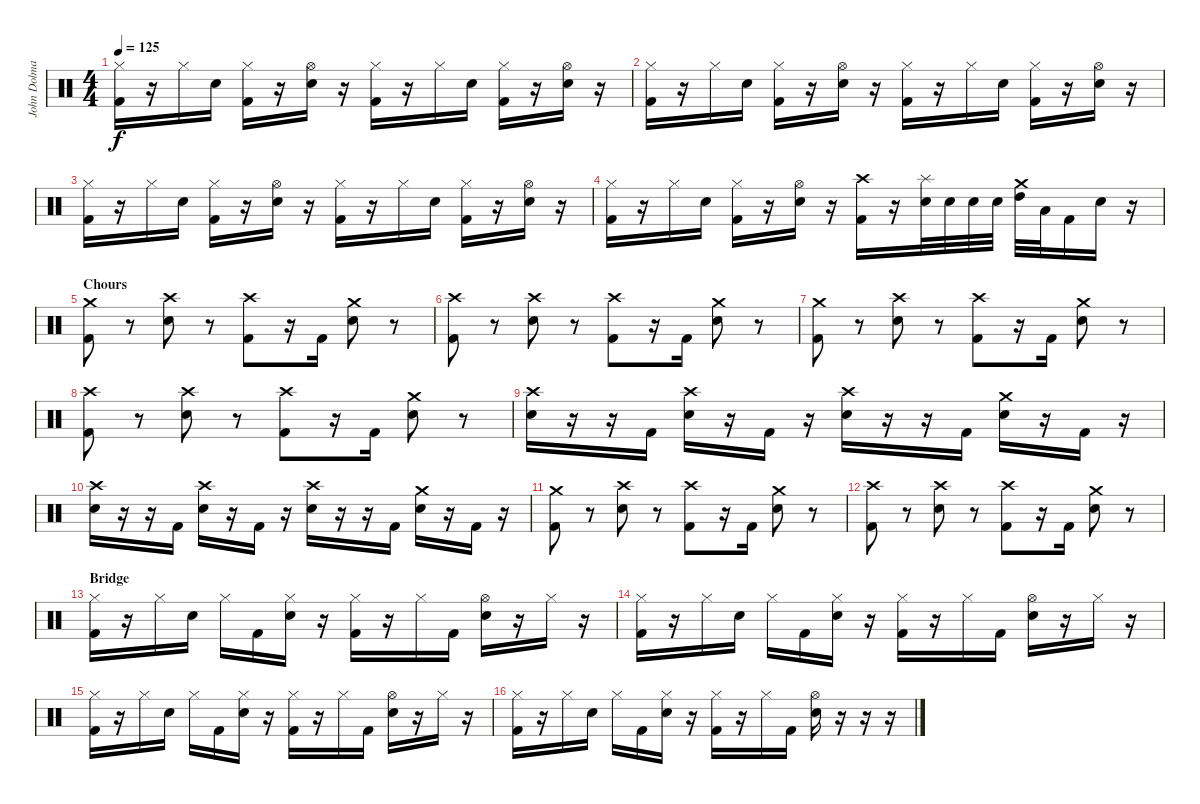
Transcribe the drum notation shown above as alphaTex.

\track ("John Dolmayan" "John Dolma") {instrument percussion}
\staff {score}
\articulation defaults
\ts (4 4)
\tempo 125
\clef neutral
\ks c
("Hi-Hat (closed)" "Kick (hit) 2").16{dy f} r.16 "Hi-Hat (closed)".16 "Electric Snare (hit)".16 ("Hi-Hat (closed)" "Kick (hit) 2").16 r.16 ("Hi-Hat (open)" "Electric Snare (hit)").16 r.16 ("Hi-Hat (closed)" "Kick (hit) 2").16 r.16 "Hi-Hat (closed)".16 "Electric Snare (hit)".16 ("Hi-Hat (closed)" "Kick (hit) 2").16 r.16 ("Hi-Hat (open)" "Electric Snare (hit)").16 r.16 |
("Hi-Hat (closed)" "Kick (hit) 2").16 r.16 "Hi-Hat (closed)".16 "Electric Snare (hit)".16 ("Hi-Hat (closed)" "Kick (hit) 2").16 r.16 ("Hi-Hat (open)" "Electric Snare (hit)").16 r.16 ("Hi-Hat (closed)" "Kick (hit) 2").16 r.16 "Hi-Hat (closed)".16 "Electric Snare (hit)".16 ("Hi-Hat (closed)" "Kick (hit) 2").16 r.16 ("Hi-Hat (open)" "Electric Snare (hit)").16 r.16 |
("Hi-Hat (closed)" "Kick (hit) 2").16 r.16 "Hi-Hat (closed)".16 "Electric Snare (hit)".16 ("Hi-Hat (closed)" "Kick (hit) 2").16 r.16 ("Hi-Hat (open)" "Electric Snare (hit)").16 r.16 ("Hi-Hat (closed)" "Kick (hit) 2").16 r.16 "Hi-Hat (closed)".16 "Electric Snare (hit)".16 ("Hi-Hat (closed)" "Kick (hit) 2").16 r.16 ("Hi-Hat (open)" "Electric Snare (hit)").16 r.16 |
("Hi-Hat (closed)" "Kick (hit) 2").16 r.16 "Hi-Hat (closed)".16 "Electric Snare (hit)".16 ("Hi-Hat (closed)" "Kick (hit) 2").16 r.16 ("Hi-Hat (open)" "Electric Snare (hit)").16 r.16 ("Crash high (hit)" "Kick (hit) 2").16 r.16 ("Splash (hit)" "Electric Snare (hit)").32 "Electric Snare (hit)".32 "Electric Snare (hit)".32 "Electric Snare (hit)".32 ("Crash medium (hit)" "High Tom (hit)").32 "Low Tom (hit)".32 "Kick (hit) 2".16 "Electric Snare (hit)".16 r.16 |
\section ("" "Chours")
("Crash medium (hit)" "Kick (hit) 2").8 r.8 ("Crash high (hit)" "Electric Snare (hit)").8 r.8 ("Crash high (hit)" "Kick (hit) 2").8 r.16 "Kick (hit) 2".16 ("Crash medium (hit)" "Electric Snare (hit)").8 r.8 |
("Crash high (hit)" "Kick (hit) 2").8 r.8 ("Crash high (hit)" "Electric Snare (hit)").8 r.8 ("Crash high (hit)" "Kick (hit) 2").8 r.16 "Kick (hit) 2".16 ("Crash medium (hit)" "Electric Snare (hit)").8 r.8 |
("Crash medium (hit)" "Kick (hit) 2").8 r.8 ("Crash high (hit)" "Electric Snare (hit)").8 r.8 ("Crash high (hit)" "Kick (hit) 2").8 r.16 "Kick (hit) 2".16 ("Crash medium (hit)" "Electric Snare (hit)").8 r.8 |
("Crash high (hit)" "Kick (hit) 2").8 r.8 ("Crash high (hit)" "Electric Snare (hit)").8 r.8 ("Crash high (hit)" "Kick (hit) 2").8 r.16 "Kick (hit) 2".16 ("Crash medium (hit)" "Electric Snare (hit)").8 r.8 |
("Crash high (hit)" "Electric Snare (hit)").16 r.16 r.16 "Kick (hit) 2".16 ("Crash high (hit)" "Electric Snare (hit)").16 r.16 "Kick (hit) 2".16 r.16 ("Crash high (hit)" "Electric Snare (hit)").16 r.16 r.16 "Kick (hit) 2".16 ("Crash medium (hit)" "Electric Snare (hit)").16 r.16 "Kick (hit) 2".16 r.16 |
("Crash high (hit)" "Electric Snare (hit)").16 r.16 r.16 "Kick (hit) 2".16 ("Crash high (hit)" "Electric Snare (hit)").16 r.16 "Kick (hit) 2".16 r.16 ("Crash high (hit)" "Electric Snare (hit)").16 r.16 r.16 "Kick (hit) 2".16 ("Crash medium (hit)" "Electric Snare (hit)").16 r.16 "Kick (hit) 2".16 r.16 |
("Crash medium (hit)" "Kick (hit) 2").8 r.8 ("Crash high (hit)" "Electric Snare (hit)").8 r.8 ("Crash high (hit)" "Kick (hit) 2").8 r.16 "Kick (hit) 2".16 ("Crash medium (hit)" "Electric Snare (hit)").8 r.8 |
("Crash high (hit)" "Kick (hit) 2").8 r.8 ("Crash high (hit)" "Electric Snare (hit)").8 r.8 ("Crash high (hit)" "Kick (hit) 2").8 r.16 "Kick (hit) 2".16 ("Crash medium (hit)" "Electric Snare (hit)").8 r.8 |
\section ("" "Bridge")
("Hi-Hat (closed)" "Kick (hit) 2").16 r.16 "Hi-Hat (closed)".16 "Electric Snare (hit)".16 "Hi-Hat (closed)".16 "Kick (hit) 2".16 ("Hi-Hat (closed)" "Electric Snare (hit)").16 r.16 ("Hi-Hat (closed)" "Kick (hit) 2").16 r.16 "Hi-Hat (closed)".16 "Kick (hit) 2".16 ("Hi-Hat (open)" "Electric Snare (hit)").16 r.16 "Hi-Hat (closed)".16 r.16 |
("Hi-Hat (closed)" "Kick (hit) 2").16 r.16 "Hi-Hat (closed)".16 "Electric Snare (hit)".16 "Hi-Hat (closed)".16 "Kick (hit) 2".16 ("Hi-Hat (closed)" "Electric Snare (hit)").16 r.16 ("Hi-Hat (closed)" "Kick (hit) 2").16 r.16 "Hi-Hat (closed)".16 "Kick (hit) 2".16 ("Hi-Hat (open)" "Electric Snare (hit)").16 r.16 "Hi-Hat (closed)".16 r.16 |
("Hi-Hat (closed)" "Kick (hit) 2").16 r.16 "Hi-Hat (closed)".16 "Electric Snare (hit)".16 "Hi-Hat (closed)".16 "Kick (hit) 2".16 ("Hi-Hat (closed)" "Electric Snare (hit)").16 r.16 ("Hi-Hat (closed)" "Kick (hit) 2").16 r.16 "Hi-Hat (closed)".16 "Kick (hit) 2".16 ("Hi-Hat (open)" "Electric Snare (hit)").16 r.16 "Hi-Hat (closed)".16 r.16 |
("Hi-Hat (closed)" "Kick (hit) 2").16 r.16 "Hi-Hat (closed)".16 "Electric Snare (hit)".16 "Hi-Hat (closed)".16 "Kick (hit) 2".16 ("Hi-Hat (closed)" "Electric Snare (hit)").16 r.16 ("Hi-Hat (closed)" "Kick (hit) 2").16 r.16 "Hi-Hat (closed)".16 "Kick (hit) 2".16 ("Hi-Hat (open)" "Electric Snare (hit)").16 r.16 r.16 r.16
